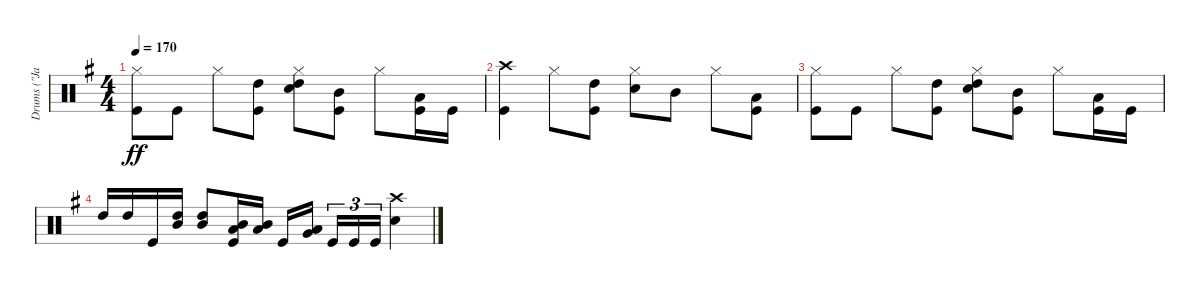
\track ("Drums (\"Jane\")" "Drums (\"Ja") {instrument percussion}
\staff {score}
\articulation defaults
\ts (4 4)
\tempo 170
\clef neutral
\ks g
("Hi-Hat (closed)" "Kick (hit)").8{dy ff} "Kick (hit)".8 "Hi-Hat (closed)".8 ("High Tom (hit)" "Kick (hit)").8 ("Hi-Hat (closed)" "Snare (hit) 2" "High Tom (hit)").8 ("Mid Tom (hit)" "Kick (hit)").8 "Hi-Hat (closed)".8 ("Low Tom (hit)" "Kick (hit)").16 "Kick (hit)".16 |
("Crash high (hit)" "Kick (hit)").4 "Hi-Hat (closed)".8 ("High Tom (hit)" "Kick (hit)").8 ("Hi-Hat (closed)" "Snare (hit) 2").8 "Mid Tom (hit)".8 "Hi-Hat (closed)".8 ("Low Tom (hit)" "Kick (hit)").8 |
("Hi-Hat (closed)" "Kick (hit)").8 "Kick (hit)".8 "Hi-Hat (closed)".8 ("High Tom (hit)" "Kick (hit)").8 ("Hi-Hat (closed)" "Snare (hit) 2" "High Tom (hit)").8 ("Mid Tom (hit)" "Kick (hit)").8 "Hi-Hat (closed)".8 ("Low Tom (hit)" "Kick (hit)").16 "Kick (hit)".16 |
"High Tom (hit)".16 "High Tom (hit)".16 "Kick (hit)".16 ("High Tom (hit)" "Mid Tom (hit)").16 ("High Tom (hit)" "Mid Tom (hit)").8 ("Low Tom (hit)" "Mid Tom (hit)" "Kick (hit)").16 ("Low Tom (hit)" "Mid Tom (hit)").16 "Kick (hit)".16 ("Low Tom (hit)" "Very Low Tom (hit)").16{beam splitsecondary} "Kick (hit)".16{tu (3 2)} "Kick (hit)".16{tu (3 2)} "Kick (hit)".16{tu (3 2)} ("Crash high (hit)" "Snare (hit) 2").4
